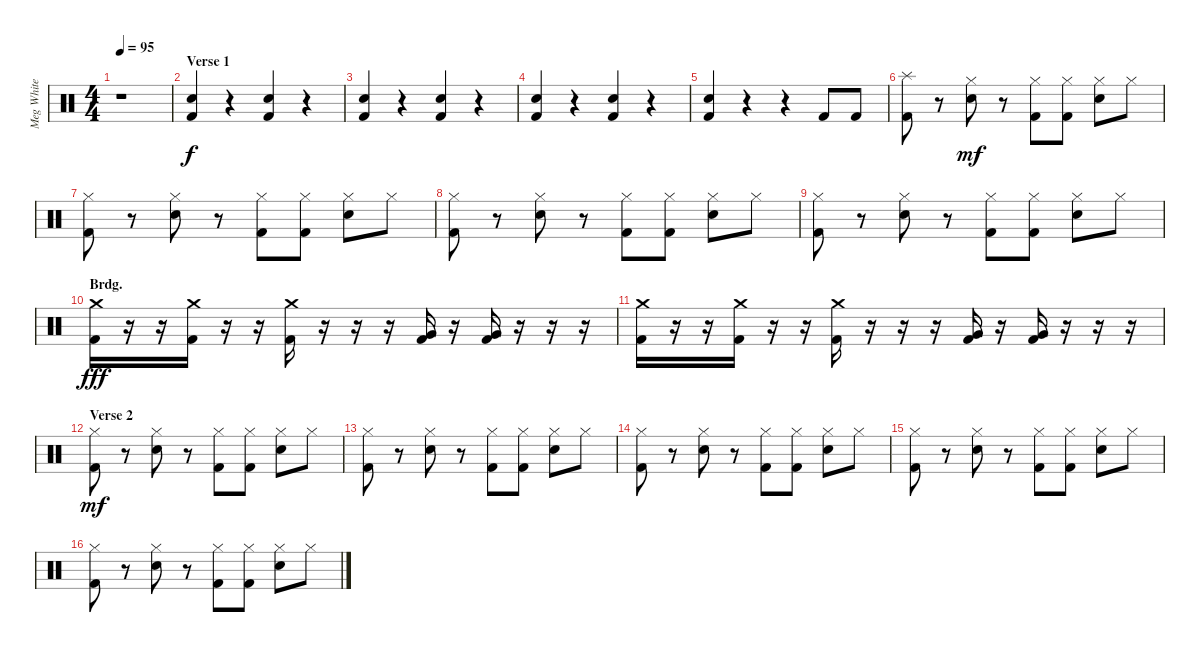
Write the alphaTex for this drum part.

\track ("Meg White - Drums" "Meg White ") {instrument percussion}
\staff {score}
\articulation defaults
\ts (4 4)
\tempo 95
\clef neutral
\ks c
r.1{dy f} |
\section ("" "Verse 1")
("Electric Snare (hit)" "Kick (hit) 2").4 r.4 ("Electric Snare (hit)" "Kick (hit) 2").4 r.4 |
("Electric Snare (hit)" "Kick (hit) 2").4 r.4 ("Electric Snare (hit)" "Kick (hit) 2").4 r.4 |
("Electric Snare (hit)" "Kick (hit) 2").4 r.4 ("Electric Snare (hit)" "Kick (hit) 2").4 r.4 |
("Electric Snare (hit)" "Kick (hit) 2").4 r.4 r.4 "Kick (hit) 2".8 "Kick (hit) 2".8 |
("Splash (hit)" "Kick (hit) 2").8 r.8 ("Hi-Hat (closed)" "Electric Snare (hit)").8{dy mf} r.8 ("Hi-Hat (closed)" "Kick (hit) 2").8 ("Hi-Hat (closed)" "Kick (hit) 2").8 ("Hi-Hat (closed)" "Electric Snare (hit)").8 "Hi-Hat (closed)".8 |
("Hi-Hat (closed)" "Kick (hit) 2").8 r.8 ("Hi-Hat (closed)" "Electric Snare (hit)").8 r.8 ("Hi-Hat (closed)" "Kick (hit) 2").8 ("Hi-Hat (closed)" "Kick (hit) 2").8 ("Hi-Hat (closed)" "Electric Snare (hit)").8 "Hi-Hat (closed)".8 |
("Hi-Hat (closed)" "Kick (hit) 2").8 r.8 ("Hi-Hat (closed)" "Electric Snare (hit)").8 r.8 ("Hi-Hat (closed)" "Kick (hit) 2").8 ("Hi-Hat (closed)" "Kick (hit) 2").8 ("Hi-Hat (closed)" "Electric Snare (hit)").8 "Hi-Hat (closed)".8 |
("Hi-Hat (closed)" "Kick (hit) 2").8 r.8 ("Hi-Hat (closed)" "Electric Snare (hit)").8 r.8 ("Hi-Hat (closed)" "Kick (hit) 2").8 ("Hi-Hat (closed)" "Kick (hit) 2").8 ("Hi-Hat (closed)" "Electric Snare (hit)").8 "Hi-Hat (closed)".8 |
\section ("" "Brdg.")
("Crash medium (hit)" "Kick (hit) 2").16{dy fff} r.16 r.16 ("Crash medium (hit)" "Kick (hit) 2").16 r.16 r.16 ("Crash medium (hit)" "Kick (hit) 2").16 r.16 r.16 r.16 ("Very Low Tom (hit)" "Kick (hit) 2").16 r.16 ("Very Low Tom (hit)" "Kick (hit) 2").16 r.16 r.16 r.16 |
("Crash medium (hit)" "Kick (hit) 2").16 r.16 r.16 ("Crash medium (hit)" "Kick (hit) 2").16 r.16 r.16 ("Crash medium (hit)" "Kick (hit) 2").16 r.16 r.16 r.16 ("Very Low Tom (hit)" "Kick (hit) 2").16 r.16 ("Very Low Tom (hit)" "Kick (hit) 2").16 r.16 r.16 r.16 |
\section ("" "Verse 2")
("Hi-Hat (closed)" "Kick (hit) 2").8{dy mf} r.8 ("Hi-Hat (closed)" "Electric Snare (hit)").8 r.8 ("Hi-Hat (closed)" "Kick (hit) 2").8 ("Hi-Hat (closed)" "Kick (hit) 2").8 ("Hi-Hat (closed)" "Electric Snare (hit)").8 "Hi-Hat (closed)".8 |
("Hi-Hat (closed)" "Kick (hit) 2").8 r.8 ("Hi-Hat (closed)" "Electric Snare (hit)").8 r.8 ("Hi-Hat (closed)" "Kick (hit) 2").8 ("Hi-Hat (closed)" "Kick (hit) 2").8 ("Hi-Hat (closed)" "Electric Snare (hit)").8 "Hi-Hat (closed)".8 |
("Hi-Hat (closed)" "Kick (hit) 2").8 r.8 ("Hi-Hat (closed)" "Electric Snare (hit)").8 r.8 ("Hi-Hat (closed)" "Kick (hit) 2").8 ("Hi-Hat (closed)" "Kick (hit) 2").8 ("Hi-Hat (closed)" "Electric Snare (hit)").8 "Hi-Hat (closed)".8 |
("Hi-Hat (closed)" "Kick (hit) 2").8 r.8 ("Hi-Hat (closed)" "Electric Snare (hit)").8 r.8 ("Hi-Hat (closed)" "Kick (hit) 2").8 ("Hi-Hat (closed)" "Kick (hit) 2").8 ("Hi-Hat (closed)" "Electric Snare (hit)").8 "Hi-Hat (closed)".8 |
("Hi-Hat (closed)" "Kick (hit) 2").8 r.8 ("Hi-Hat (closed)" "Electric Snare (hit)").8 r.8 ("Hi-Hat (closed)" "Kick (hit) 2").8 ("Hi-Hat (closed)" "Kick (hit) 2").8 ("Hi-Hat (closed)" "Electric Snare (hit)").8 "Hi-Hat (closed)".8
